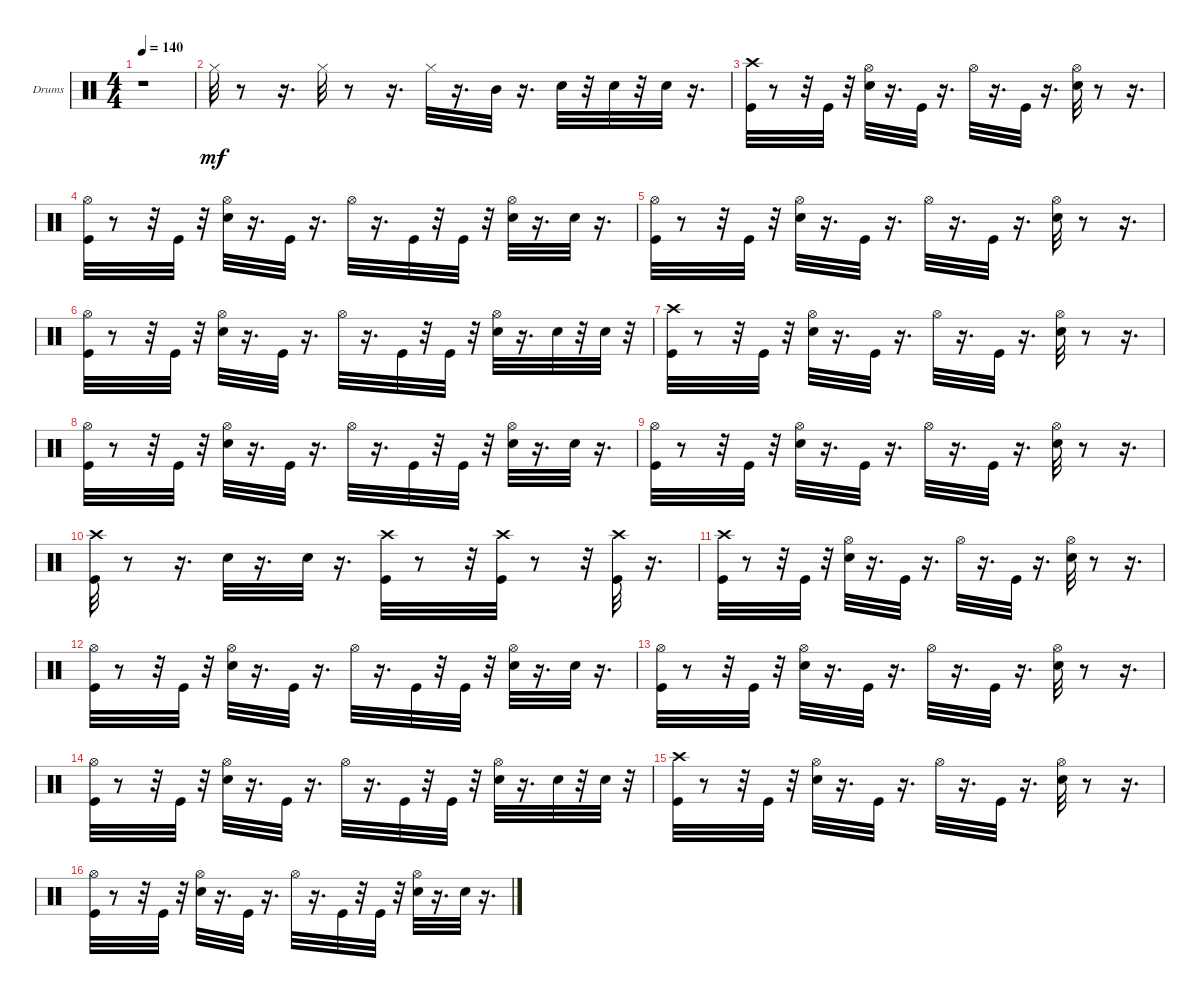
\bracketExtendMode groupsimilarinstruments
\firstSystemTrackNameOrientation horizontal
\otherSystemsTrackNameOrientation horizontal
\track ("" "Drums") {instrument percussion}
\staff {score}
\articulation defaults
\ts (4 4)
\tempo 140
\clef neutral
\ks c
r.1{dy mf} |
"Hi-Hat (closed)".32 r.8 r.16{d} "Hi-Hat (closed)".32 r.8 r.16{d} "Hi-Hat (closed)".32 r.16{d} "Mid Tom (hit)".32 r.16{d} "Snare (hit) 2".32 r.32 "Snare (hit) 2".32 r.32 "Snare (hit) 2".32 r.16{d} |
("Crash high (hit)" "Kick (hit)").32 r.8 r.32 "Kick (hit)".32 r.32 ("Snare (hit) 2" "Hi-Hat (open)").32 r.16{d} "Kick (hit)".32 r.16{d} "Hi-Hat (open)".32 r.16{d} "Kick (hit)".32 r.16{d} ("Snare (hit) 2" "Hi-Hat (open)").32 r.8 r.16{d} |
("Hi-Hat (open)" "Kick (hit)").32 r.8 r.32 "Kick (hit)".32 r.32 ("Snare (hit) 2" "Hi-Hat (open)").32 r.16{d} "Kick (hit)".32 r.16{d} "Hi-Hat (open)".32 r.16{d} "Kick (hit)".32 r.32 "Kick (hit)".32 r.32 ("Snare (hit) 2" "Hi-Hat (open)").32 r.16{d} "Snare (hit) 2".32 r.16{d} |
("Hi-Hat (open)" "Kick (hit)").32 r.8 r.32 "Kick (hit)".32 r.32 ("Snare (hit) 2" "Hi-Hat (open)").32 r.16{d} "Kick (hit)".32 r.16{d} "Hi-Hat (open)".32 r.16{d} "Kick (hit)".32 r.16{d} ("Snare (hit) 2" "Hi-Hat (open)").32 r.8 r.16{d} |
("Hi-Hat (open)" "Kick (hit)").32 r.8 r.32 "Kick (hit)".32 r.32 ("Snare (hit) 2" "Hi-Hat (open)").32 r.16{d} "Kick (hit)".32 r.16{d} "Hi-Hat (open)".32 r.16{d} "Kick (hit)".32 r.32 "Kick (hit)".32 r.32 ("Snare (hit) 2" "Hi-Hat (open)").32 r.16{d} "Snare (hit) 2".32 r.32 "Snare (hit) 2".32 r.32 |
("Crash high (hit)" "Kick (hit)").32 r.8 r.32 "Kick (hit)".32 r.32 ("Snare (hit) 2" "Hi-Hat (open)").32 r.16{d} "Kick (hit)".32 r.16{d} "Hi-Hat (open)".32 r.16{d} "Kick (hit)".32 r.16{d} ("Snare (hit) 2" "Hi-Hat (open)").32 r.8 r.16{d} |
("Hi-Hat (open)" "Kick (hit)").32 r.8 r.32 "Kick (hit)".32 r.32 ("Snare (hit) 2" "Hi-Hat (open)").32 r.16{d} "Kick (hit)".32 r.16{d} "Hi-Hat (open)".32 r.16{d} "Kick (hit)".32 r.32 "Kick (hit)".32 r.32 ("Snare (hit) 2" "Hi-Hat (open)").32 r.16{d} "Snare (hit) 2".32 r.16{d} |
("Hi-Hat (open)" "Kick (hit)").32 r.8 r.32 "Kick (hit)".32 r.32 ("Snare (hit) 2" "Hi-Hat (open)").32 r.16{d} "Kick (hit)".32 r.16{d} "Hi-Hat (open)".32 r.16{d} "Kick (hit)".32 r.16{d} ("Snare (hit) 2" "Hi-Hat (open)").32 r.8 r.16{d} |
("Crash high (hit)" "Kick (hit)").32 r.8 r.16{d} "Snare (hit) 2".32 r.16{d} "Snare (hit) 2".32 r.16{d} ("Crash high (hit)" "Kick (hit)").32 r.8 r.32 ("Crash high (hit)" "Kick (hit)").32 r.8 r.32 ("Crash high (hit)" "Kick (hit)").32 r.16{d} |
("Crash high (hit)" "Kick (hit)").32 r.8 r.32 "Kick (hit)".32 r.32 ("Snare (hit) 2" "Hi-Hat (open)").32 r.16{d} "Kick (hit)".32 r.16{d} "Hi-Hat (open)".32 r.16{d} "Kick (hit)".32 r.16{d} ("Snare (hit) 2" "Hi-Hat (open)").32 r.8 r.16{d} |
("Hi-Hat (open)" "Kick (hit)").32 r.8 r.32 "Kick (hit)".32 r.32 ("Snare (hit) 2" "Hi-Hat (open)").32 r.16{d} "Kick (hit)".32 r.16{d} "Hi-Hat (open)".32 r.16{d} "Kick (hit)".32 r.32 "Kick (hit)".32 r.32 ("Snare (hit) 2" "Hi-Hat (open)").32 r.16{d} "Snare (hit) 2".32 r.16{d} |
("Hi-Hat (open)" "Kick (hit)").32 r.8 r.32 "Kick (hit)".32 r.32 ("Snare (hit) 2" "Hi-Hat (open)").32 r.16{d} "Kick (hit)".32 r.16{d} "Hi-Hat (open)".32 r.16{d} "Kick (hit)".32 r.16{d} ("Snare (hit) 2" "Hi-Hat (open)").32 r.8 r.16{d} |
("Hi-Hat (open)" "Kick (hit)").32 r.8 r.32 "Kick (hit)".32 r.32 ("Snare (hit) 2" "Hi-Hat (open)").32 r.16{d} "Kick (hit)".32 r.16{d} "Hi-Hat (open)".32 r.16{d} "Kick (hit)".32 r.32 "Kick (hit)".32 r.32 ("Snare (hit) 2" "Hi-Hat (open)").32 r.16{d} "Snare (hit) 2".32 r.32 "Snare (hit) 2".32 r.32 |
("Crash high (hit)" "Kick (hit)").32 r.8 r.32 "Kick (hit)".32 r.32 ("Snare (hit) 2" "Hi-Hat (open)").32 r.16{d} "Kick (hit)".32 r.16{d} "Hi-Hat (open)".32 r.16{d} "Kick (hit)".32 r.16{d} ("Snare (hit) 2" "Hi-Hat (open)").32 r.8 r.16{d} |
("Hi-Hat (open)" "Kick (hit)").32 r.8 r.32 "Kick (hit)".32 r.32 ("Snare (hit) 2" "Hi-Hat (open)").32 r.16{d} "Kick (hit)".32 r.16{d} "Hi-Hat (open)".32 r.16{d} "Kick (hit)".32 r.32 "Kick (hit)".32 r.32 ("Snare (hit) 2" "Hi-Hat (open)").32 r.16{d} "Snare (hit) 2".32 r.16{d}
